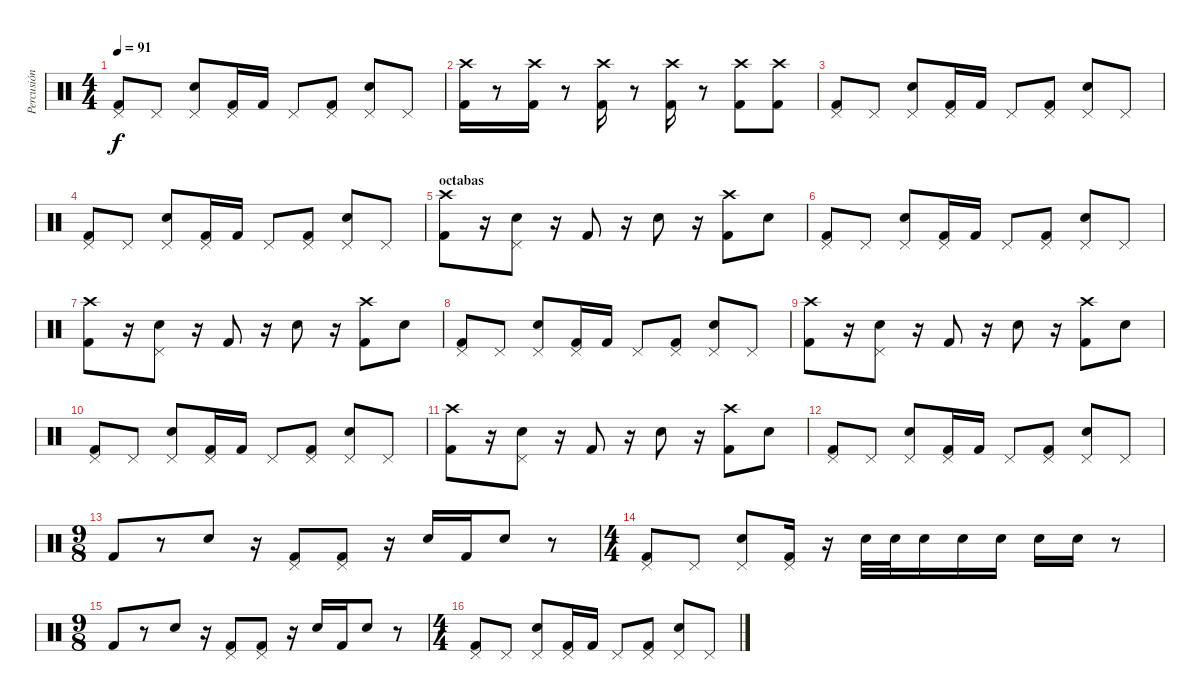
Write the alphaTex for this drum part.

\track ("Percusión" "Percusión") {instrument percussion}
\staff {score}
\articulation defaults
\ts (4 4)
\tempo 91
\clef neutral
\ks c
("Pedal Hi-Hat (hit)" "Kick (hit) 2").8{dy f} "Pedal Hi-Hat (hit)".8 ("Pedal Hi-Hat (hit)" "Electric Snare (hit)").8 ("Pedal Hi-Hat (hit)" "Kick (hit) 2").16 "Kick (hit) 2".16 "Pedal Hi-Hat (hit)".8 ("Pedal Hi-Hat (hit)" "Kick (hit) 2").8 ("Pedal Hi-Hat (hit)" "Electric Snare (hit)").8 "Pedal Hi-Hat (hit)".8 |
("Crash high (hit)" "Kick (hit) 2").16 r.8 ("Crash high (hit)" "Kick (hit) 2").16 r.8 ("Crash high (hit)" "Kick (hit) 2").16 r.8 ("Crash high (hit)" "Kick (hit) 2").16 r.8 ("Crash high (hit)" "Kick (hit) 2").8 ("Crash high (hit)" "Kick (hit) 2").8 |
("Pedal Hi-Hat (hit)" "Kick (hit) 2").8 "Pedal Hi-Hat (hit)".8 ("Pedal Hi-Hat (hit)" "Electric Snare (hit)").8 ("Pedal Hi-Hat (hit)" "Kick (hit) 2").16 "Kick (hit) 2".16 "Pedal Hi-Hat (hit)".8 ("Pedal Hi-Hat (hit)" "Kick (hit) 2").8 ("Pedal Hi-Hat (hit)" "Electric Snare (hit)").8 "Pedal Hi-Hat (hit)".8 |
("Pedal Hi-Hat (hit)" "Kick (hit) 2").8 "Pedal Hi-Hat (hit)".8 ("Pedal Hi-Hat (hit)" "Electric Snare (hit)").8 ("Pedal Hi-Hat (hit)" "Kick (hit) 2").16 "Kick (hit) 2".16 "Pedal Hi-Hat (hit)".8 ("Pedal Hi-Hat (hit)" "Kick (hit) 2").8 ("Pedal Hi-Hat (hit)" "Electric Snare (hit)").8 "Pedal Hi-Hat (hit)".8 |
\section ("" "octabas")
("Crash high (hit)" "Kick (hit) 2").8 r.16 ("Pedal Hi-Hat (hit)" "Electric Snare (hit)").8 r.16 "Kick (hit) 2".8 r.16 "Electric Snare (hit)".8 r.16 ("Crash high (hit)" "Kick (hit) 2").8 "Electric Snare (hit)".8 |
("Pedal Hi-Hat (hit)" "Kick (hit) 2").8 "Pedal Hi-Hat (hit)".8 ("Pedal Hi-Hat (hit)" "Electric Snare (hit)").8 ("Pedal Hi-Hat (hit)" "Kick (hit) 2").16 "Kick (hit) 2".16 "Pedal Hi-Hat (hit)".8 ("Pedal Hi-Hat (hit)" "Kick (hit) 2").8 ("Pedal Hi-Hat (hit)" "Electric Snare (hit)").8 "Pedal Hi-Hat (hit)".8 |
("Crash high (hit)" "Kick (hit) 2").8 r.16 ("Pedal Hi-Hat (hit)" "Electric Snare (hit)").8 r.16 "Kick (hit) 2".8 r.16 "Electric Snare (hit)".8 r.16 ("Crash high (hit)" "Kick (hit) 2").8 "Electric Snare (hit)".8 |
("Pedal Hi-Hat (hit)" "Kick (hit) 2").8 "Pedal Hi-Hat (hit)".8 ("Pedal Hi-Hat (hit)" "Electric Snare (hit)").8 ("Pedal Hi-Hat (hit)" "Kick (hit) 2").16 "Kick (hit) 2".16 "Pedal Hi-Hat (hit)".8 ("Pedal Hi-Hat (hit)" "Kick (hit) 2").8 ("Pedal Hi-Hat (hit)" "Electric Snare (hit)").8 "Pedal Hi-Hat (hit)".8 |
("Crash high (hit)" "Kick (hit) 2").8 r.16 ("Pedal Hi-Hat (hit)" "Electric Snare (hit)").8 r.16 "Kick (hit) 2".8 r.16 "Electric Snare (hit)".8 r.16 ("Crash high (hit)" "Kick (hit) 2").8 "Electric Snare (hit)".8 |
("Pedal Hi-Hat (hit)" "Kick (hit) 2").8 "Pedal Hi-Hat (hit)".8 ("Pedal Hi-Hat (hit)" "Electric Snare (hit)").8 ("Pedal Hi-Hat (hit)" "Kick (hit) 2").16 "Kick (hit) 2".16 "Pedal Hi-Hat (hit)".8 ("Pedal Hi-Hat (hit)" "Kick (hit) 2").8 ("Pedal Hi-Hat (hit)" "Electric Snare (hit)").8 "Pedal Hi-Hat (hit)".8 |
("Crash high (hit)" "Kick (hit) 2").8 r.16 ("Pedal Hi-Hat (hit)" "Electric Snare (hit)").8 r.16 "Kick (hit) 2".8 r.16 "Electric Snare (hit)".8 r.16 ("Crash high (hit)" "Kick (hit) 2").8 "Electric Snare (hit)".8 |
("Pedal Hi-Hat (hit)" "Kick (hit) 2").8 "Pedal Hi-Hat (hit)".8 ("Pedal Hi-Hat (hit)" "Electric Snare (hit)").8 ("Pedal Hi-Hat (hit)" "Kick (hit) 2").16 "Kick (hit) 2".16 "Pedal Hi-Hat (hit)".8 ("Pedal Hi-Hat (hit)" "Kick (hit) 2").8 ("Pedal Hi-Hat (hit)" "Electric Snare (hit)").8 "Pedal Hi-Hat (hit)".8 |
\ts (9 8)
"Kick (hit) 2".8 r.8 "Electric Snare (hit)".8 r.16 ("Pedal Hi-Hat (hit)" "Kick (hit) 2").8 ("Pedal Hi-Hat (hit)" "Kick (hit) 2").8 r.16 "Electric Snare (hit)".16 "Kick (hit) 2".16 "Electric Snare (hit)".8 r.8 |
\ts (4 4)
("Pedal Hi-Hat (hit)" "Kick (hit) 2").8 "Pedal Hi-Hat (hit)".8 ("Pedal Hi-Hat (hit)" "Electric Snare (hit)").8 ("Pedal Hi-Hat (hit)" "Kick (hit) 2").16 r.16 "Electric Snare (hit)".32 "Electric Snare (hit)".32 "Electric Snare (hit)".16 "Electric Snare (hit)".16 "Electric Snare (hit)".16 "Electric Snare (hit)".16 "Electric Snare (hit)".16 r.8 |
\ts (9 8)
"Kick (hit) 2".8 r.8 "Electric Snare (hit)".8 r.16 ("Pedal Hi-Hat (hit)" "Kick (hit) 2").8 ("Pedal Hi-Hat (hit)" "Kick (hit) 2").8 r.16 "Electric Snare (hit)".16 "Kick (hit) 2".16 "Electric Snare (hit)".8 r.8 |
\ts (4 4)
("Pedal Hi-Hat (hit)" "Kick (hit) 2").8 "Pedal Hi-Hat (hit)".8 ("Pedal Hi-Hat (hit)" "Electric Snare (hit)").8 ("Pedal Hi-Hat (hit)" "Kick (hit) 2").16 "Kick (hit) 2".16 "Pedal Hi-Hat (hit)".8 ("Pedal Hi-Hat (hit)" "Kick (hit) 2").8 ("Pedal Hi-Hat (hit)" "Electric Snare (hit)").8 "Pedal Hi-Hat (hit)".8
